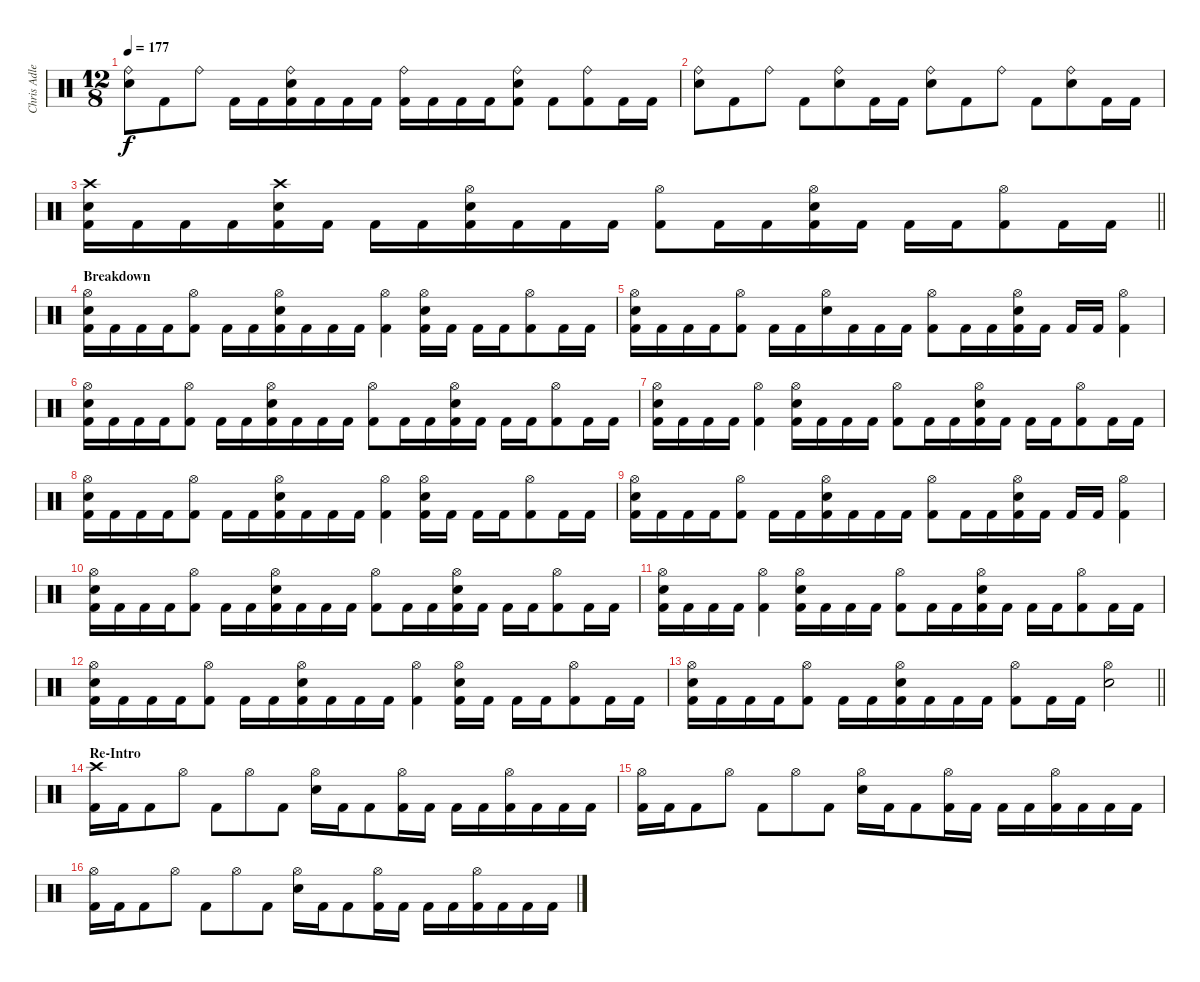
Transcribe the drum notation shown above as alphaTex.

\track ("Chris Adler" "Chris Adle") {instrument percussion}
\staff {score}
\articulation defaults
\ts (12 8)
\tempo 177
\clef neutral
\ks c
("Ride (bell)" "Snare (hit) 2").8{dy f} "Kick (hit) 2".8 "Ride (bell)".8 "Kick (hit) 2".16 "Kick (hit) 2".16 ("Ride (bell)" "Snare (hit) 2" "Kick (hit) 2").16 "Kick (hit) 2".16 "Kick (hit) 2".16 "Kick (hit) 2".16 ("Ride (bell)" "Kick (hit) 2").16 "Kick (hit) 2".16 "Kick (hit) 2".16 "Kick (hit) 2".16 ("Ride (bell)" "Snare (hit) 2" "Kick (hit) 2").8 "Kick (hit) 2".8 ("Ride (bell)" "Kick (hit) 2").8 "Kick (hit) 2".16 "Kick (hit) 2".16 |
("Ride (bell)" "Snare (hit) 2").8 "Kick (hit) 2".8 "Ride (bell)".8 "Kick (hit) 2".8 ("Ride (bell)" "Snare (hit) 2").8 "Kick (hit) 2".16 "Kick (hit) 2".16 ("Ride (bell)" "Snare (hit) 2").8 "Kick (hit) 2".8 "Ride (bell)".8 "Kick (hit) 2".8 ("Ride (bell)" "Snare (hit) 2").8 "Kick (hit) 2".16 "Kick (hit) 2".16 |
\barLineRight lightlight
("Crash high (hit)" "Snare (hit) 2" "Kick (hit) 2").16 "Kick (hit) 2".16 "Kick (hit) 2".16 "Kick (hit) 2".16 ("Crash high (hit)" "Snare (hit) 2" "Kick (hit) 2").16 "Kick (hit) 2".16 "Kick (hit) 2".16 "Kick (hit) 2".16 ("Snare (hit) 2" "Hi-Hat (open)" "Kick (hit) 2").16 "Kick (hit) 2".16 "Kick (hit) 2".16 "Kick (hit) 2".16 ("Hi-Hat (open)" "Kick (hit) 2").8 "Kick (hit) 2".16 "Kick (hit) 2".16 ("Hi-Hat (open)" "Snare (hit) 2" "Kick (hit) 2").16 "Kick (hit) 2".16 "Kick (hit) 2".16 "Kick (hit) 2".16 ("Hi-Hat (open)" "Kick (hit) 2").8 "Kick (hit) 2".16 "Kick (hit) 2".16 |
\section ("" "Breakdown")
("Hi-Hat (open)" "Snare (hit) 2" "Kick (hit) 2").16 "Kick (hit) 2".16 "Kick (hit) 2".16 "Kick (hit) 2".16 ("Hi-Hat (open)" "Kick (hit) 2").8 "Kick (hit) 2".16 "Kick (hit) 2".16 ("Hi-Hat (open)" "Snare (hit) 2" "Kick (hit) 2").16 "Kick (hit) 2".16 "Kick (hit) 2".16 "Kick (hit) 2".16 ("Hi-Hat (open)" "Kick (hit) 2").4 ("Kick (hit) 2" "Snare (hit) 2" "Hi-Hat (open)").16 "Kick (hit) 2".16 "Kick (hit) 2".16 "Kick (hit) 2".16 ("Hi-Hat (open)" "Kick (hit) 2").8 "Kick (hit) 2".16 "Kick (hit) 2".16 |
("Kick (hit) 2" "Hi-Hat (open)" "Snare (hit) 2").16 "Kick (hit) 2".16 "Kick (hit) 2".16 "Kick (hit) 2".16 ("Hi-Hat (open)" "Kick (hit) 2").8 "Kick (hit) 2".16 "Kick (hit) 2".16 ("Hi-Hat (open)" "Snare (hit) 2").16 "Kick (hit) 2".16 "Kick (hit) 2".16 "Kick (hit) 2".16 ("Hi-Hat (open)" "Kick (hit) 2").8 "Kick (hit) 2".16 "Kick (hit) 2".16 ("Kick (hit) 2" "Hi-Hat (open)" "Snare (hit) 2").16 "Kick (hit) 2".16 "Kick (hit) 2".16 "Kick (hit) 2".16 ("Hi-Hat (open)" "Kick (hit) 2").4 |
("Kick (hit) 2" "Hi-Hat (open)" "Snare (hit) 2").16 "Kick (hit) 2".16 "Kick (hit) 2".16 "Kick (hit) 2".16 ("Hi-Hat (open)" "Kick (hit) 2").8 "Kick (hit) 2".16 "Kick (hit) 2".16 ("Kick (hit) 2" "Hi-Hat (open)" "Snare (hit) 2").16 "Kick (hit) 2".16 "Kick (hit) 2".16 "Kick (hit) 2".16 ("Hi-Hat (open)" "Kick (hit) 2").8 "Kick (hit) 2".16 "Kick (hit) 2".16 ("Kick (hit) 2" "Hi-Hat (open)" "Snare (hit) 2").16 "Kick (hit) 2".16 "Kick (hit) 2".16 "Kick (hit) 2".16 ("Hi-Hat (open)" "Kick (hit) 2").8 "Kick (hit) 2".16 "Kick (hit) 2".16 |
("Kick (hit) 2" "Hi-Hat (open)" "Snare (hit) 2").16 "Kick (hit) 2".16 "Kick (hit) 2".16 "Kick (hit) 2".16 ("Hi-Hat (open)" "Kick (hit) 2").4 ("Kick (hit) 2" "Hi-Hat (open)" "Snare (hit) 2").16 "Kick (hit) 2".16 "Kick (hit) 2".16 "Kick (hit) 2".16 ("Hi-Hat (open)" "Kick (hit) 2").8 "Kick (hit) 2".16 "Kick (hit) 2".16 ("Kick (hit) 2" "Hi-Hat (open)" "Snare (hit) 2").16 "Kick (hit) 2".16 "Kick (hit) 2".16 "Kick (hit) 2".16 ("Hi-Hat (open)" "Kick (hit) 2").8 "Kick (hit) 2".16 "Kick (hit) 2".16 |
("Kick (hit) 2" "Hi-Hat (open)" "Snare (hit) 2").16 "Kick (hit) 2".16 "Kick (hit) 2".16 "Kick (hit) 2".16 ("Hi-Hat (open)" "Kick (hit) 2").8 "Kick (hit) 2".16 "Kick (hit) 2".16 ("Kick (hit) 2" "Hi-Hat (open)" "Snare (hit) 2").16 "Kick (hit) 2".16 "Kick (hit) 2".16 "Kick (hit) 2".16 ("Hi-Hat (open)" "Kick (hit) 2").4 ("Kick (hit) 2" "Hi-Hat (open)" "Snare (hit) 2").16 "Kick (hit) 2".16 "Kick (hit) 2".16 "Kick (hit) 2".16 ("Hi-Hat (open)" "Kick (hit) 2").8 "Kick (hit) 2".16 "Kick (hit) 2".16 |
("Kick (hit) 2" "Hi-Hat (open)" "Snare (hit) 2").16 "Kick (hit) 2".16 "Kick (hit) 2".16 "Kick (hit) 2".16 ("Hi-Hat (open)" "Kick (hit) 2").8 "Kick (hit) 2".16 "Kick (hit) 2".16 ("Kick (hit) 2" "Hi-Hat (open)" "Snare (hit) 2").16 "Kick (hit) 2".16 "Kick (hit) 2".16 "Kick (hit) 2".16 ("Hi-Hat (open)" "Kick (hit) 2").8 "Kick (hit) 2".16 "Kick (hit) 2".16 ("Kick (hit) 2" "Hi-Hat (open)" "Snare (hit) 2").16 "Kick (hit) 2".16 "Kick (hit) 2".16 "Kick (hit) 2".16 ("Hi-Hat (open)" "Kick (hit) 2").4 |
("Kick (hit) 2" "Hi-Hat (open)" "Snare (hit) 2").16 "Kick (hit) 2".16 "Kick (hit) 2".16 "Kick (hit) 2".16 ("Hi-Hat (open)" "Kick (hit) 2").8 "Kick (hit) 2".16 "Kick (hit) 2".16 ("Kick (hit) 2" "Hi-Hat (open)" "Snare (hit) 2").16 "Kick (hit) 2".16 "Kick (hit) 2".16 "Kick (hit) 2".16 ("Hi-Hat (open)" "Kick (hit) 2").8 "Kick (hit) 2".16 "Kick (hit) 2".16 ("Kick (hit) 2" "Hi-Hat (open)" "Snare (hit) 2").16 "Kick (hit) 2".16 "Kick (hit) 2".16 "Kick (hit) 2".16 ("Hi-Hat (open)" "Kick (hit) 2").8 "Kick (hit) 2".16 "Kick (hit) 2".16 |
("Kick (hit) 2" "Hi-Hat (open)" "Snare (hit) 2").16 "Kick (hit) 2".16 "Kick (hit) 2".16 "Kick (hit) 2".16 ("Hi-Hat (open)" "Kick (hit) 2").4 ("Kick (hit) 2" "Hi-Hat (open)" "Snare (hit) 2").16 "Kick (hit) 2".16 "Kick (hit) 2".16 "Kick (hit) 2".16 ("Hi-Hat (open)" "Kick (hit) 2").8 "Kick (hit) 2".16 "Kick (hit) 2".16 ("Kick (hit) 2" "Hi-Hat (open)" "Snare (hit) 2").16 "Kick (hit) 2".16 "Kick (hit) 2".16 "Kick (hit) 2".16 ("Hi-Hat (open)" "Kick (hit) 2").8 "Kick (hit) 2".16 "Kick (hit) 2".16 |
("Kick (hit) 2" "Hi-Hat (open)" "Snare (hit) 2").16 "Kick (hit) 2".16 "Kick (hit) 2".16 "Kick (hit) 2".16 ("Hi-Hat (open)" "Kick (hit) 2").8 "Kick (hit) 2".16 "Kick (hit) 2".16 ("Kick (hit) 2" "Hi-Hat (open)" "Snare (hit) 2").16 "Kick (hit) 2".16 "Kick (hit) 2".16 "Kick (hit) 2".16 ("Hi-Hat (open)" "Kick (hit) 2").4 ("Kick (hit) 2" "Hi-Hat (open)" "Snare (hit) 2").16 "Kick (hit) 2".16 "Kick (hit) 2".16 "Kick (hit) 2".16 ("Hi-Hat (open)" "Kick (hit) 2").8 "Kick (hit) 2".16 "Kick (hit) 2".16 |
\barLineRight lightlight
("Kick (hit) 2" "Hi-Hat (open)" "Snare (hit) 2").16 "Kick (hit) 2".16 "Kick (hit) 2".16 "Kick (hit) 2".16 ("Hi-Hat (open)" "Kick (hit) 2").8 "Kick (hit) 2".16 "Kick (hit) 2".16 ("Kick (hit) 2" "Hi-Hat (open)" "Snare (hit) 2").16 "Kick (hit) 2".16 "Kick (hit) 2".16 "Kick (hit) 2".16 ("Hi-Hat (open)" "Kick (hit) 2").8 "Kick (hit) 2".16 "Kick (hit) 2".16 ("Hi-Hat (open)" "Snare (hit) 2").2 |
\section ("" "Re-Intro")
("Crash high (hit)" "Kick (hit) 2").16 "Kick (hit) 2".16 "Kick (hit) 2".8 "Hi-Hat (open)".8 "Kick (hit) 2".8 "Hi-Hat (open)".8 "Kick (hit) 2".8 ("Hi-Hat (open)" "Snare (hit) 2").16 "Kick (hit) 2".16 "Kick (hit) 2".8 ("Hi-Hat (open)" "Kick (hit) 2").16 "Kick (hit) 2".16 "Kick (hit) 2".16 "Kick (hit) 2".16 ("Hi-Hat (open)" "Kick (hit) 2").16 "Kick (hit) 2".16 "Kick (hit) 2".16 "Kick (hit) 2".16 |
("Hi-Hat (open)" "Kick (hit) 2").16 "Kick (hit) 2".16 "Kick (hit) 2".8 "Hi-Hat (open)".8 "Kick (hit) 2".8 "Hi-Hat (open)".8 "Kick (hit) 2".8 ("Hi-Hat (open)" "Snare (hit) 2").16 "Kick (hit) 2".16 "Kick (hit) 2".8 ("Hi-Hat (open)" "Kick (hit) 2").16 "Kick (hit) 2".16 "Kick (hit) 2".16 "Kick (hit) 2".16 ("Hi-Hat (open)" "Kick (hit) 2").16 "Kick (hit) 2".16 "Kick (hit) 2".16 "Kick (hit) 2".16 |
("Hi-Hat (open)" "Kick (hit) 2").16 "Kick (hit) 2".16 "Kick (hit) 2".8 "Hi-Hat (open)".8 "Kick (hit) 2".8 "Hi-Hat (open)".8 "Kick (hit) 2".8 ("Hi-Hat (open)" "Snare (hit) 2").16 "Kick (hit) 2".16 "Kick (hit) 2".8 ("Hi-Hat (open)" "Kick (hit) 2").16 "Kick (hit) 2".16 "Kick (hit) 2".16 "Kick (hit) 2".16 ("Hi-Hat (open)" "Kick (hit) 2").16 "Kick (hit) 2".16 "Kick (hit) 2".16 "Kick (hit) 2".16
